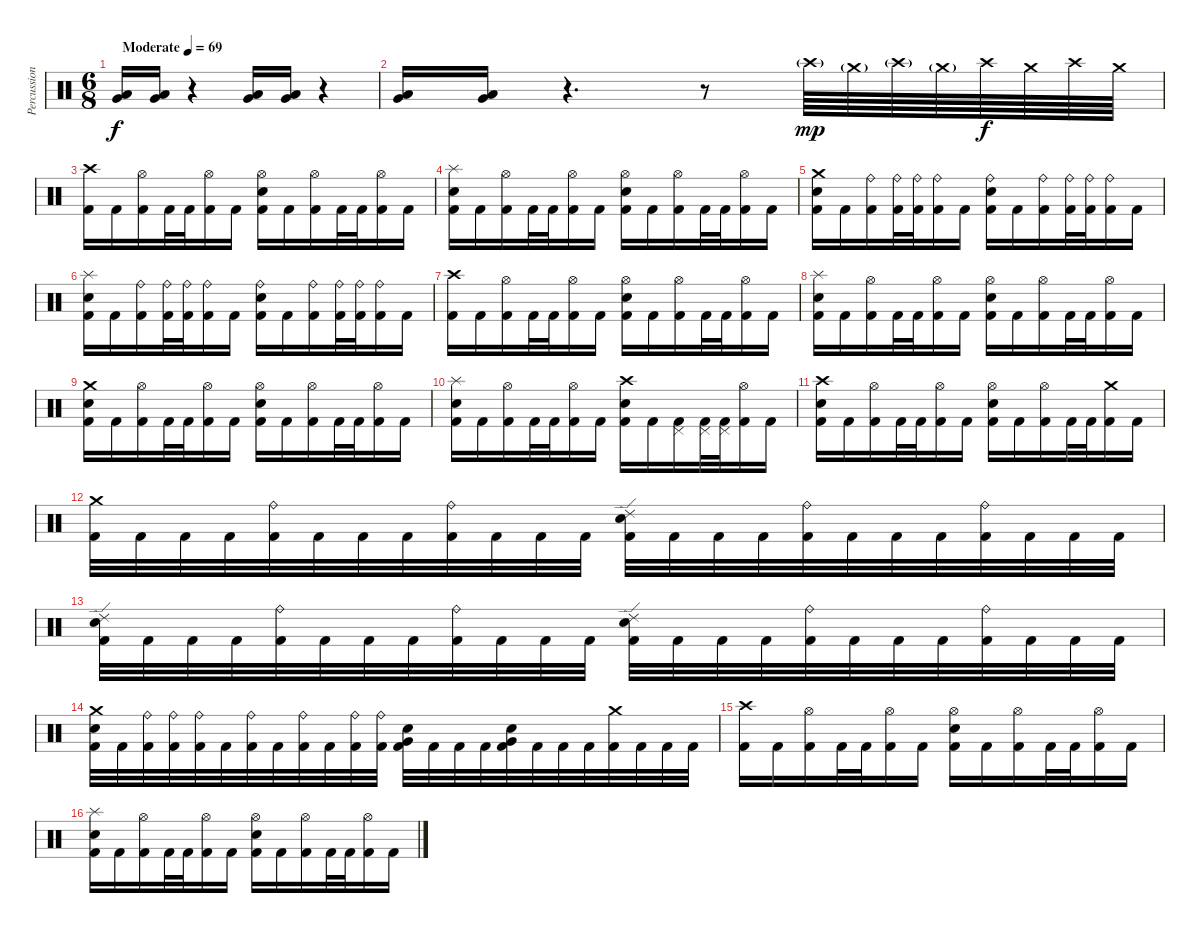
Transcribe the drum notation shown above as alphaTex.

\track ("Percussion" "Percussion") {instrument percussion}
\staff {score}
\articulation defaults
\ts (6 8)
\tempo (69 "Moderate")
\clef neutral
\ks c
("Very Low Tom (hit)" "Low Floor Tom (hit)").16{dy f} ("Very Low Tom (hit)" "Low Floor Tom (hit)").16 r.4 ("Very Low Tom (hit)" "Low Floor Tom (hit)").16 ("Very Low Tom (hit)" "Low Floor Tom (hit)").16 r.4 |
("Very Low Tom (hit)" "Low Floor Tom (hit)").16 ("Very Low Tom (hit)" "Low Floor Tom (hit)").16 r.4{d} r.8 "Crash high (hit)"{g}.64{dy mp} "Crash medium (hit)"{g}.64 "Crash high (hit)"{g}.64 "Crash medium (hit)"{g}.64 "Crash high (hit)".64{dy f} "Crash medium (hit)".64 "Crash high (hit)".64 "Crash medium (hit)".64 |
("Crash high (hit)" "Kick (hit) 2").16 "Kick (hit) 2".16 ("Hi-Hat (open)" "Kick (hit) 2").16 "Kick (hit) 2".32 "Kick (hit) 2".32 ("Hi-Hat (open)" "Kick (hit) 2").16 "Kick (hit) 2".16 ("Hi-Hat (open)" "Snare (hit) 2" "Kick (hit) 2").16 "Kick (hit) 2".16 ("Hi-Hat (open)" "Kick (hit) 2").16 "Kick (hit) 2".32 "Kick (hit) 2".32 ("Hi-Hat (open)" "Kick (hit) 2").16 "Kick (hit) 2".16 |
("Splash (hit)" "Snare (hit) 2" "Kick (hit) 2").16 "Kick (hit) 2".16 ("Hi-Hat (open)" "Kick (hit) 2").16 "Kick (hit) 2".32 "Kick (hit) 2".32 ("Hi-Hat (open)" "Kick (hit) 2").16 "Kick (hit) 2".16 ("Hi-Hat (open)" "Snare (hit) 2" "Kick (hit) 2").16 "Kick (hit) 2".16 ("Hi-Hat (open)" "Kick (hit) 2").16 "Kick (hit) 2".32 "Kick (hit) 2".32 ("Hi-Hat (open)" "Kick (hit) 2").16 "Kick (hit) 2".16 |
("Crash medium (hit)" "Snare (hit) 2" "Kick (hit) 2").16 "Kick (hit) 2".16 ("Ride (bell)" "Kick (hit) 2").16 ("Ride (bell)" "Kick (hit) 2").32 ("Ride (bell)" "Kick (hit) 2").32 ("Ride (bell)" "Kick (hit) 2").16 "Kick (hit) 2".16 ("Ride (bell)" "Snare (hit) 2" "Kick (hit) 2").16 "Kick (hit) 2".16 ("Ride (bell)" "Kick (hit) 2").16 ("Ride (bell)" "Kick (hit) 2").32 ("Ride (bell)" "Kick (hit) 2").32 ("Ride (bell)" "Kick (hit) 2").16 "Kick (hit) 2".16 |
("Splash (hit)" "Snare (hit) 2" "Kick (hit) 2").16 "Kick (hit) 2".16 ("Ride (bell)" "Kick (hit) 2").16 ("Ride (bell)" "Kick (hit) 2").32 ("Ride (bell)" "Kick (hit) 2").32 ("Ride (bell)" "Kick (hit) 2").16 "Kick (hit) 2".16 ("Ride (bell)" "Snare (hit) 2" "Kick (hit) 2").16 "Kick (hit) 2".16 ("Ride (bell)" "Kick (hit) 2").16 ("Ride (bell)" "Kick (hit) 2").32 ("Ride (bell)" "Kick (hit) 2").32 ("Ride (bell)" "Kick (hit) 2").16 "Kick (hit) 2".16 |
("Crash high (hit)" "Kick (hit) 2").16 "Kick (hit) 2".16 ("Hi-Hat (open)" "Kick (hit) 2").16 "Kick (hit) 2".32 "Kick (hit) 2".32 ("Hi-Hat (open)" "Kick (hit) 2").16 "Kick (hit) 2".16 ("Hi-Hat (open)" "Snare (hit) 2" "Kick (hit) 2").16 "Kick (hit) 2".16 ("Hi-Hat (open)" "Kick (hit) 2").16 "Kick (hit) 2".32 "Kick (hit) 2".32 ("Hi-Hat (open)" "Kick (hit) 2").16 "Kick (hit) 2".16 |
("Splash (hit)" "Snare (hit) 2" "Kick (hit) 2").16 "Kick (hit) 2".16 ("Hi-Hat (open)" "Kick (hit) 2").16 "Kick (hit) 2".32 "Kick (hit) 2".32 ("Hi-Hat (open)" "Kick (hit) 2").16 "Kick (hit) 2".16 ("Hi-Hat (open)" "Snare (hit) 2" "Kick (hit) 2").16 "Kick (hit) 2".16 ("Hi-Hat (open)" "Kick (hit) 2").16 "Kick (hit) 2".32 "Kick (hit) 2".32 ("Hi-Hat (open)" "Kick (hit) 2").16 "Kick (hit) 2".16 |
("Crash medium (hit)" "Snare (hit) 2" "Kick (hit) 2").16 "Kick (hit) 2".16 ("Hi-Hat (open)" "Kick (hit) 2").16 "Kick (hit) 2".32 "Kick (hit) 2".32 ("Hi-Hat (open)" "Kick (hit) 2").16 "Kick (hit) 2".16 ("Hi-Hat (open)" "Snare (hit) 2" "Kick (hit) 2").16 "Kick (hit) 2".16 ("Hi-Hat (open)" "Kick (hit) 2").16 "Kick (hit) 2".32 "Kick (hit) 2".32 ("Hi-Hat (open)" "Kick (hit) 2").16 "Kick (hit) 2".16 |
("Splash (hit)" "Snare (hit) 2" "Kick (hit) 2").16 "Kick (hit) 2".16 ("Hi-Hat (open)" "Kick (hit) 2").16 "Kick (hit) 2".32 "Kick (hit) 2".32 ("Hi-Hat (open)" "Kick (hit) 2").16 "Kick (hit) 2".16 ("Crash high (hit)" "Snare (hit) 2" "Kick (hit) 2").16 "Kick (hit) 2".16 ("Pedal Hi-Hat (hit)" "Kick (hit) 2").16 ("Pedal Hi-Hat (hit)" "Kick (hit) 2").32 ("Pedal Hi-Hat (hit)" "Kick (hit) 2").32 ("Hi-Hat (open)" "Kick (hit) 2").16 "Kick (hit) 2".16 |
("Crash high (hit)" "Snare (hit) 2" "Kick (hit) 2").16 "Kick (hit) 2".16 ("Hi-Hat (open)" "Kick (hit) 2").16 "Kick (hit) 2".32 "Kick (hit) 2".32 ("Hi-Hat (open)" "Kick (hit) 2").16 "Kick (hit) 2".16 ("Hi-Hat (open)" "Snare (hit) 2" "Kick (hit) 2").16 "Kick (hit) 2".16 ("Hi-Hat (open)" "Kick (hit) 2").16 "Kick (hit) 2".32 "Kick (hit) 2".32 ("Crash medium (hit)" "Kick (hit) 2").16 "Kick (hit) 2".16 |
("Crash medium (hit)" "Kick (hit) 2").32 "Kick (hit) 2".32 "Kick (hit) 2".32 "Kick (hit) 2".32 ("Ride (bell)" "Kick (hit) 2").32 "Kick (hit) 2".32 "Kick (hit) 2".32 "Kick (hit) 2".32 ("Ride (bell)" "Kick (hit) 2").32 "Kick (hit) 2".32 "Kick (hit) 2".32 "Kick (hit) 2".32 ("Ride (edge) 2" "Snare (hit) 2" "Kick (hit) 2").32 "Kick (hit) 2".32 "Kick (hit) 2".32 "Kick (hit) 2".32 ("Ride (bell)" "Kick (hit) 2").32 "Kick (hit) 2".32 "Kick (hit) 2".32 "Kick (hit) 2".32 ("Ride (bell)" "Kick (hit) 2").32 "Kick (hit) 2".32 "Kick (hit) 2".32 "Kick (hit) 2".32 |
("Ride (edge) 2" "Snare (hit) 2" "Kick (hit) 2").32 "Kick (hit) 2".32 "Kick (hit) 2".32 "Kick (hit) 2".32 ("Ride (bell)" "Kick (hit) 2").32 "Kick (hit) 2".32 "Kick (hit) 2".32 "Kick (hit) 2".32 ("Ride (bell)" "Kick (hit) 2").32 "Kick (hit) 2".32 "Kick (hit) 2".32 "Kick (hit) 2".32 ("Ride (edge) 2" "Snare (hit) 2" "Kick (hit) 2").32 "Kick (hit) 2".32 "Kick (hit) 2".32 "Kick (hit) 2".32 ("Ride (bell)" "Kick (hit) 2").32 "Kick (hit) 2".32 "Kick (hit) 2".32 "Kick (hit) 2".32 ("Ride (bell)" "Kick (hit) 2").32 "Kick (hit) 2".32 "Kick (hit) 2".32 "Kick (hit) 2".32 |
("Crash medium (hit)" "Snare (hit) 2" "Kick (hit) 2").32 "Kick (hit) 2".32 ("Ride (bell)" "Kick (hit) 2").32 ("Ride (bell)" "Kick (hit) 2").32 ("Ride (bell)" "Kick (hit) 2").32 "Kick (hit) 2".32 ("Ride (bell)" "Kick (hit) 2").32 "Kick (hit) 2".32 ("Ride (bell)" "Kick (hit) 2").32 "Kick (hit) 2".32 ("Ride (bell)" "Kick (hit) 2").32 ("Ride (bell)" "Kick (hit) 2").32 ("Very Low Tom (hit)" "Snare (hit) 2" "Kick (hit) 2").32 "Kick (hit) 2".32 "Kick (hit) 2".32 "Kick (hit) 2".32 ("Very Low Tom (hit)" "Snare (hit) 2" "Kick (hit) 2").32 "Kick (hit) 2".32 "Kick (hit) 2".32 "Kick (hit) 2".32 ("Crash medium (hit)" "Kick (hit) 2").32 "Kick (hit) 2".32 "Kick (hit) 2".32 "Kick (hit) 2".32 |
("Crash high (hit)" "Kick (hit) 2").16 "Kick (hit) 2".16 ("Hi-Hat (open)" "Kick (hit) 2").16 "Kick (hit) 2".32 "Kick (hit) 2".32 ("Hi-Hat (open)" "Kick (hit) 2").16 "Kick (hit) 2".16 ("Hi-Hat (open)" "Snare (hit) 2" "Kick (hit) 2").16 "Kick (hit) 2".16 ("Hi-Hat (open)" "Kick (hit) 2").16 "Kick (hit) 2".32 "Kick (hit) 2".32 ("Hi-Hat (open)" "Kick (hit) 2").16 "Kick (hit) 2".16 |
("Splash (hit)" "Snare (hit) 2" "Kick (hit) 2").16 "Kick (hit) 2".16 ("Hi-Hat (open)" "Kick (hit) 2").16 "Kick (hit) 2".32 "Kick (hit) 2".32 ("Hi-Hat (open)" "Kick (hit) 2").16 "Kick (hit) 2".16 ("Hi-Hat (open)" "Snare (hit) 2" "Kick (hit) 2").16 "Kick (hit) 2".16 ("Hi-Hat (open)" "Kick (hit) 2").16 "Kick (hit) 2".32 "Kick (hit) 2".32 ("Hi-Hat (open)" "Kick (hit) 2").16 "Kick (hit) 2".16
